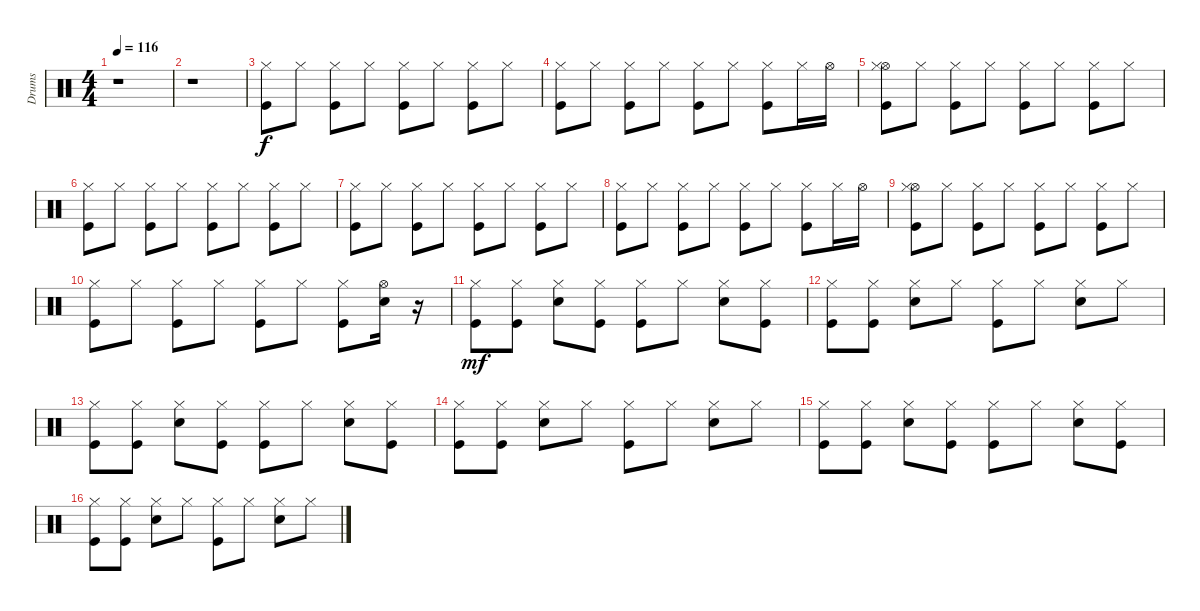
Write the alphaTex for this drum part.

\track ("Drums" "Drums") {instrument percussion}
\staff {score}
\articulation defaults
\ts (4 4)
\tempo 116
\clef neutral
\ks c
r.1{dy f} |
r.1 |
("Kick (hit)" "Hi-Hat (closed)").8 "Hi-Hat (closed)".8 ("Kick (hit)" "Hi-Hat (closed)").8 "Hi-Hat (closed)".8 ("Kick (hit)" "Hi-Hat (closed)").8 "Hi-Hat (closed)".8 ("Kick (hit)" "Hi-Hat (closed)").8 "Hi-Hat (closed)".8 |
("Kick (hit)" "Hi-Hat (closed)").8 "Hi-Hat (closed)".8 ("Kick (hit)" "Hi-Hat (closed)").8 "Hi-Hat (closed)".8 ("Kick (hit)" "Hi-Hat (closed)").8 "Hi-Hat (closed)".8 ("Kick (hit)" "Hi-Hat (closed)").8 "Hi-Hat (closed)".16 "Hi-Hat (open)".16 |
("Kick (hit)" "Hi-Hat (open)" "Hi-Hat (closed)").8 "Hi-Hat (closed)".8 ("Kick (hit)" "Hi-Hat (closed)").8 "Hi-Hat (closed)".8 ("Kick (hit)" "Hi-Hat (closed)").8 "Hi-Hat (closed)".8 ("Kick (hit)" "Hi-Hat (closed)").8 "Hi-Hat (closed)".8 |
("Kick (hit)" "Hi-Hat (closed)").8 "Hi-Hat (closed)".8 ("Kick (hit)" "Hi-Hat (closed)").8 "Hi-Hat (closed)".8 ("Kick (hit)" "Hi-Hat (closed)").8 "Hi-Hat (closed)".8 ("Kick (hit)" "Hi-Hat (closed)").8 "Hi-Hat (closed)".8 |
("Kick (hit)" "Hi-Hat (closed)").8 "Hi-Hat (closed)".8 ("Kick (hit)" "Hi-Hat (closed)").8 "Hi-Hat (closed)".8 ("Kick (hit)" "Hi-Hat (closed)").8 "Hi-Hat (closed)".8 ("Kick (hit)" "Hi-Hat (closed)").8 "Hi-Hat (closed)".8 |
("Kick (hit)" "Hi-Hat (closed)").8 "Hi-Hat (closed)".8 ("Kick (hit)" "Hi-Hat (closed)").8 "Hi-Hat (closed)".8 ("Kick (hit)" "Hi-Hat (closed)").8 "Hi-Hat (closed)".8 ("Kick (hit)" "Hi-Hat (closed)").8 "Hi-Hat (closed)".16 "Hi-Hat (open)".16 |
("Kick (hit)" "Hi-Hat (open)" "Hi-Hat (closed)").8 "Hi-Hat (closed)".8 ("Kick (hit)" "Hi-Hat (closed)").8 "Hi-Hat (closed)".8 ("Kick (hit)" "Hi-Hat (closed)").8 "Hi-Hat (closed)".8 ("Kick (hit)" "Hi-Hat (closed)").8 "Hi-Hat (closed)".8 |
("Kick (hit)" "Hi-Hat (closed)").8 "Hi-Hat (closed)".8 ("Kick (hit)" "Hi-Hat (closed)").8 "Hi-Hat (closed)".8 ("Kick (hit)" "Hi-Hat (closed)").8 "Hi-Hat (closed)".8 ("Kick (hit)" "Hi-Hat (closed)").8 ("Hi-Hat (open)" "Electric Snare (hit)").16 r.16 |
("Kick (hit)" "Hi-Hat (closed)").8{dy mf} ("Kick (hit)" "Hi-Hat (closed)").8 ("Electric Snare (hit)" "Hi-Hat (closed)").8 ("Kick (hit)" "Hi-Hat (closed)").8 ("Kick (hit)" "Hi-Hat (closed)").8 "Hi-Hat (closed)".8 ("Electric Snare (hit)" "Hi-Hat (closed)").8 ("Kick (hit)" "Hi-Hat (closed)").8 |
("Kick (hit)" "Hi-Hat (closed)").8 ("Kick (hit)" "Hi-Hat (closed)").8 ("Electric Snare (hit)" "Hi-Hat (closed)").8 "Hi-Hat (closed)".8 ("Kick (hit)" "Hi-Hat (closed)").8 "Hi-Hat (closed)".8 ("Electric Snare (hit)" "Hi-Hat (closed)").8 "Hi-Hat (closed)".8 |
("Kick (hit)" "Hi-Hat (closed)").8 ("Kick (hit)" "Hi-Hat (closed)").8 ("Electric Snare (hit)" "Hi-Hat (closed)").8 ("Kick (hit)" "Hi-Hat (closed)").8 ("Kick (hit)" "Hi-Hat (closed)").8 "Hi-Hat (closed)".8 ("Electric Snare (hit)" "Hi-Hat (closed)").8 ("Kick (hit)" "Hi-Hat (closed)").8 |
("Kick (hit)" "Hi-Hat (closed)").8 ("Kick (hit)" "Hi-Hat (closed)").8 ("Electric Snare (hit)" "Hi-Hat (closed)").8 "Hi-Hat (closed)".8 ("Kick (hit)" "Hi-Hat (closed)").8 "Hi-Hat (closed)".8 ("Electric Snare (hit)" "Hi-Hat (closed)").8 "Hi-Hat (closed)".8 |
("Kick (hit)" "Hi-Hat (closed)").8 ("Kick (hit)" "Hi-Hat (closed)").8 ("Electric Snare (hit)" "Hi-Hat (closed)").8 ("Kick (hit)" "Hi-Hat (closed)").8 ("Kick (hit)" "Hi-Hat (closed)").8 "Hi-Hat (closed)".8 ("Electric Snare (hit)" "Hi-Hat (closed)").8 ("Kick (hit)" "Hi-Hat (closed)").8 |
("Kick (hit)" "Hi-Hat (closed)").8 ("Kick (hit)" "Hi-Hat (closed)").8 ("Electric Snare (hit)" "Hi-Hat (closed)").8 "Hi-Hat (closed)".8 ("Kick (hit)" "Hi-Hat (closed)").8 "Hi-Hat (closed)".8 ("Electric Snare (hit)" "Hi-Hat (closed)").8 "Hi-Hat (closed)".8
